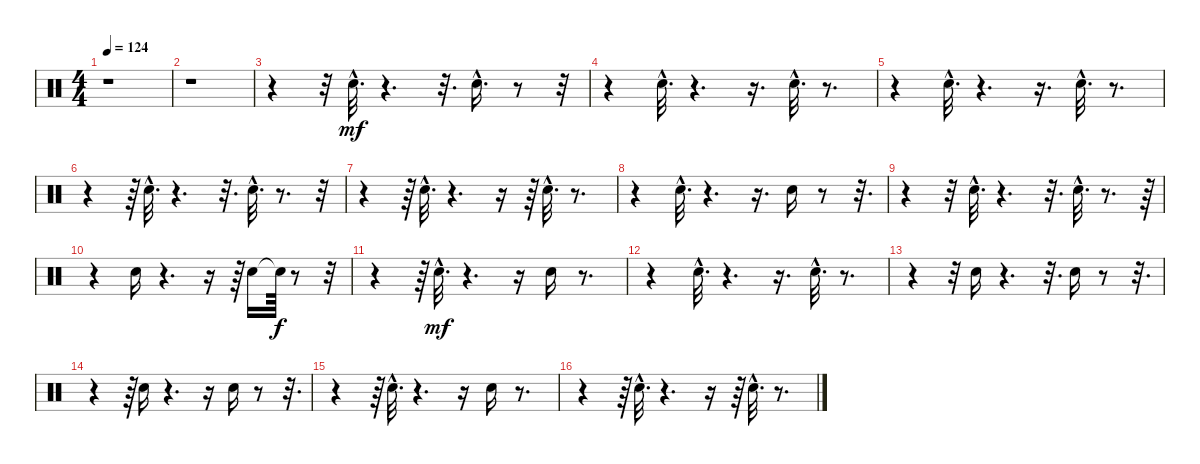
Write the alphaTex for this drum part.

\track "" {instrument percussion}
\staff {score}
\articulation defaults
\ts (4 4)
\tempo 124
\clef neutral
\ks c
r.1{dy mf} |
r.1 |
r.4 r.32 "Electric Snare (hit)"{hac}.32{d} r.4{d} r.32{d} "Electric Snare (hit)"{hac}.16{d} r.8 r.32 |
r.4 "Electric Snare (hit)"{hac}.32{d} r.4{d} r.16{d} "Electric Snare (hit)"{hac}.32{d} r.8{d} |
r.4 "Electric Snare (hit)"{hac}.32{d} r.4{d} r.16{d} "Electric Snare (hit)"{hac}.32{d} r.8{d} |
r.4 r.64 "Electric Snare (hit)"{hac}.32{d} r.4{d} r.32{d} "Electric Snare (hit)"{hac}.32{d} r.8{d} r.32 |
r.4 r.64 "Electric Snare (hit)"{hac}.32{d} r.4{d} r.16 r.64 "Electric Snare (hit)"{hac}.32{d} r.8{d} |
r.4 "Electric Snare (hit)"{hac}.32{d} r.4{d} r.16{d} "Electric Snare (hit)".16 r.8 r.32{d} |
r.4 r.32 "Electric Snare (hit)"{hac}.32{d} r.4{d} r.32{d} "Electric Snare (hit)"{hac}.32{d} r.8{d} r.64 |
r.4 "Electric Snare (hit)".16 r.4{d} r.16 r.64 "Electric Snare (hit)".16 "Snare (hit)"{t}.64{dy f} r.8 r.32 |
r.4 r.64 "Electric Snare (hit)"{hac}.32{d dy mf} r.4{d} r.16 "Electric Snare (hit)".16 r.8{d} |
r.4 "Electric Snare (hit)"{hac}.32{d} r.4{d} r.16{d} "Electric Snare (hit)"{hac}.32{d} r.8{d} |
r.4 r.32 "Electric Snare (hit)".16 r.4{d} r.32{d} "Electric Snare (hit)".16 r.8 r.32{d} |
r.4 r.64 "Electric Snare (hit)".16 r.4{d} r.16 "Electric Snare (hit)".16 r.8 r.32{d} |
r.4 r.64 "Electric Snare (hit)"{hac}.32{d} r.4{d} r.16 "Electric Snare (hit)".16 r.8{d} |
r.4 r.64 "Electric Snare (hit)"{hac}.32{d} r.4{d} r.16 r.64 "Electric Snare (hit)"{hac}.32{d} r.8{d}
